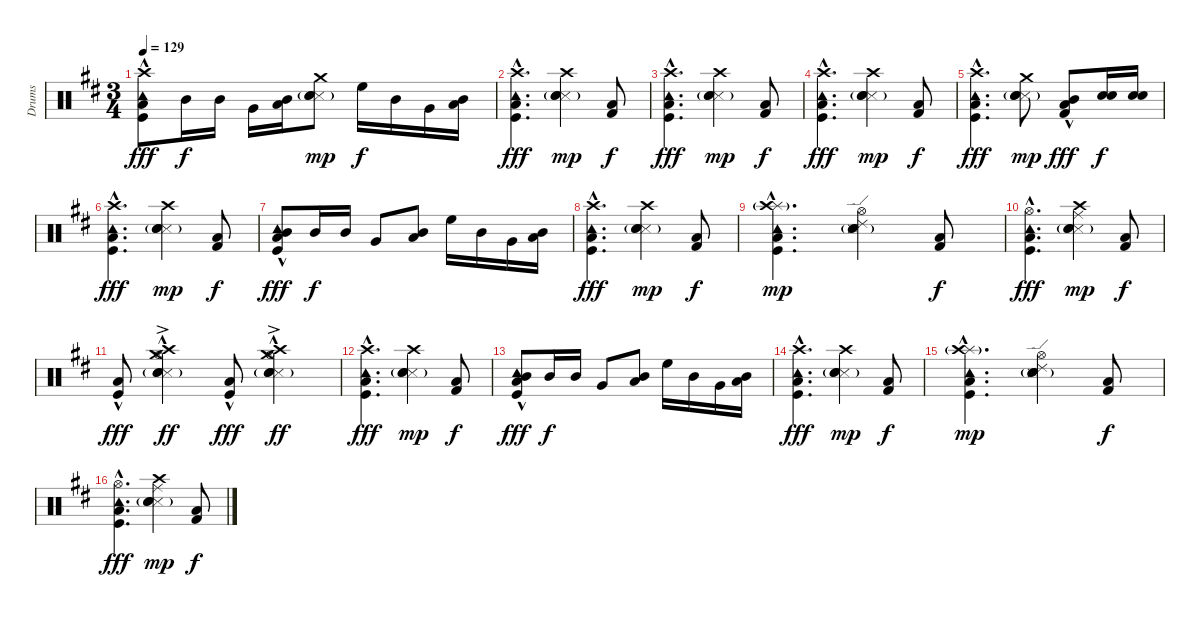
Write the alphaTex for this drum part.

\track ("Drums" "Drums") {instrument percussion}
\staff {score}
\articulation defaults
\ts (3 4)
\tempo 129
\clef neutral
\ks bminor
("Kick (hit)"{hac} "Low Floor Tom (hit)"{hac} "Tambourine (hit)"{hac} "Crash high (hit)").8{dy fff} "Mid Tom (hit)".16{dy f} "Mid Tom (hit)".16 "Very Low Tom (hit)".16 ("Low Floor Tom (hit)" "Mid Tom (hit)").16 ("Snare (side stick) 3"{g} "Snare (hit) 2" "Electric Snare (hit)" "Crash medium (hit)").8{dy mp} "High Floor Tom (hit)".16{dy f} "Mid Tom (hit)".16 "Very Low Tom (hit)".16 ("Low Floor Tom (hit)" "Mid Tom (hit)").16 |
("Kick (hit)"{hac} "Low Floor Tom (hit)"{hac} "Tambourine (hit)"{hac} "Crash high (hit)").4{d dy fff} ("Snare (side stick) 3"{g} "Snare (hit) 2" "Electric Snare (hit)" "Crash high (hit)").4{dy mp} ("Low Floor Tom (hit)" "Kick (hit) 2").8{dy f} |
("Kick (hit)"{hac} "Low Floor Tom (hit)"{hac} "Tambourine (hit)"{hac} "Crash high (hit)").4{d dy fff} ("Snare (side stick) 3"{g} "Snare (hit) 2" "Electric Snare (hit)" "Crash high (hit)").4{dy mp} ("Low Floor Tom (hit)" "Kick (hit) 2").8{dy f} |
("Kick (hit)"{hac} "Low Floor Tom (hit)"{hac} "Tambourine (hit)"{hac} "Crash high (hit)").4{d dy fff} ("Snare (side stick) 3"{g} "Snare (hit) 2" "Electric Snare (hit)" "Crash high (hit)").4{dy mp} ("Low Floor Tom (hit)" "Kick (hit) 2").8{dy f} |
("Kick (hit)"{hac} "Low Floor Tom (hit)"{hac} "Tambourine (hit)"{hac} "Crash high (hit)").4{d dy fff} ("Snare (side stick) 3"{g} "Snare (hit) 2" "Electric Snare (hit)" "Crash medium (hit)").8{dy mp} ("Mid Tom (hit)"{hac} "Low Floor Tom (hit)" "Kick (hit) 2").8{dy fff} ("Snare (hit) 2" "Electric Snare (hit)").16{dy f} ("Snare (hit) 2" "Electric Snare (hit)").16 |
("Kick (hit)"{hac} "Low Floor Tom (hit)"{hac} "Tambourine (hit)"{hac} "Crash high (hit)").4{d dy fff} ("Snare (side stick) 3"{g} "Snare (hit) 2" "Electric Snare (hit)" "Crash high (hit)").4{dy mp} ("Low Floor Tom (hit)" "Kick (hit) 2").8{dy f} |
("Kick (hit)"{hac} "Low Floor Tom (hit)"{hac} "Mid Tom (hit)" "Tambourine (hit)"{hac}).8{dy fff} "Mid Tom (hit)".16{dy f} "Mid Tom (hit)".16 "Very Low Tom (hit)".8 ("Low Floor Tom (hit)" "Mid Tom (hit)").8 "High Floor Tom (hit)".16 "Mid Tom (hit)".16 "Very Low Tom (hit)".16 ("Low Floor Tom (hit)" "Mid Tom (hit)").16 |
("Kick (hit)"{hac} "Low Floor Tom (hit)"{hac} "Tambourine (hit)"{hac} "Crash high (hit)").4{d dy fff} ("Snare (side stick) 3"{g} "Snare (hit) 2" "Electric Snare (hit)" "Crash high (hit)").4{dy mp} ("Low Floor Tom (hit)" "Kick (hit) 2").8{dy f} |
("Kick (hit)"{hac} "Low Floor Tom (hit)"{hac} "Tambourine (hit)"{hac} "Splash (hit)"{hac} "Crash high (hit)"{g}).4{d dy mp} ("Snare (side stick) 3"{g} "Snare (hit) 2" "Electric Snare (hit)" "Ride (edge) 2" "Hi-Hat (open)").4 ("Low Floor Tom (hit)" "Kick (hit) 2").8{dy f} |
("Kick (hit)"{hac} "Low Floor Tom (hit)"{hac} "Tambourine (hit)"{hac} "Hi-Hat (open)").4{d dy fff} ("Snare (side stick) 3"{g} "Snare (hit) 2" "Electric Snare (hit)" "Ride (middle)" "Crash high (hit)").4{dy mp} ("Low Floor Tom (hit)" "Kick (hit) 2").8{dy f} |
("Kick (hit)"{hac} "Low Floor Tom (hit)"{hac}).8{dy fff} ("Snare (side stick) 3"{g} "Snare (hit) 2" "Electric Snare (hit)" "Hi-Hat (open)"{hac} "Crash high (hit)"{ac} "Crash medium (hit)").4{dy ff} ("Kick (hit)"{hac} "Low Floor Tom (hit)"{hac}).8{dy fff} ("Snare (side stick) 3"{g} "Snare (hit) 2" "Electric Snare (hit)" "Hi-Hat (open)"{hac} "Crash high (hit)"{ac} "Crash medium (hit)").4{dy ff} |
("Kick (hit)"{hac} "Low Floor Tom (hit)"{hac} "Tambourine (hit)"{hac} "Crash high (hit)").4{d dy fff} ("Snare (side stick) 3"{g} "Snare (hit) 2" "Electric Snare (hit)" "Crash high (hit)").4{dy mp} ("Low Floor Tom (hit)" "Kick (hit) 2").8{dy f} |
("Kick (hit)"{hac} "Low Floor Tom (hit)"{hac} "Mid Tom (hit)" "Tambourine (hit)"{hac}).8{dy fff} "Mid Tom (hit)".16{dy f} "Mid Tom (hit)".16 "Very Low Tom (hit)".8 ("Low Floor Tom (hit)" "Mid Tom (hit)").8 "High Floor Tom (hit)".16 "Mid Tom (hit)".16 "Very Low Tom (hit)".16 ("Low Floor Tom (hit)" "Mid Tom (hit)").16 |
("Kick (hit)"{hac} "Low Floor Tom (hit)"{hac} "Tambourine (hit)"{hac} "Crash high (hit)").4{d dy fff} ("Snare (side stick) 3"{g} "Snare (hit) 2" "Electric Snare (hit)" "Crash high (hit)").4{dy mp} ("Low Floor Tom (hit)" "Kick (hit) 2").8{dy f} |
("Kick (hit)"{hac} "Low Floor Tom (hit)"{hac} "Tambourine (hit)"{hac} "Splash (hit)"{hac} "Crash high (hit)"{g}).4{d dy mp} ("Snare (side stick) 3"{g} "Snare (hit) 2" "Electric Snare (hit)" "Ride (edge) 2" "Hi-Hat (open)").4 ("Low Floor Tom (hit)" "Kick (hit) 2").8{dy f} |
("Kick (hit)"{hac} "Low Floor Tom (hit)"{hac} "Tambourine (hit)"{hac} "Hi-Hat (open)").4{d dy fff} ("Snare (side stick) 3"{g} "Snare (hit) 2" "Electric Snare (hit)" "Ride (middle)" "Crash high (hit)").4{dy mp} ("Low Floor Tom (hit)" "Kick (hit) 2").8{dy f}
